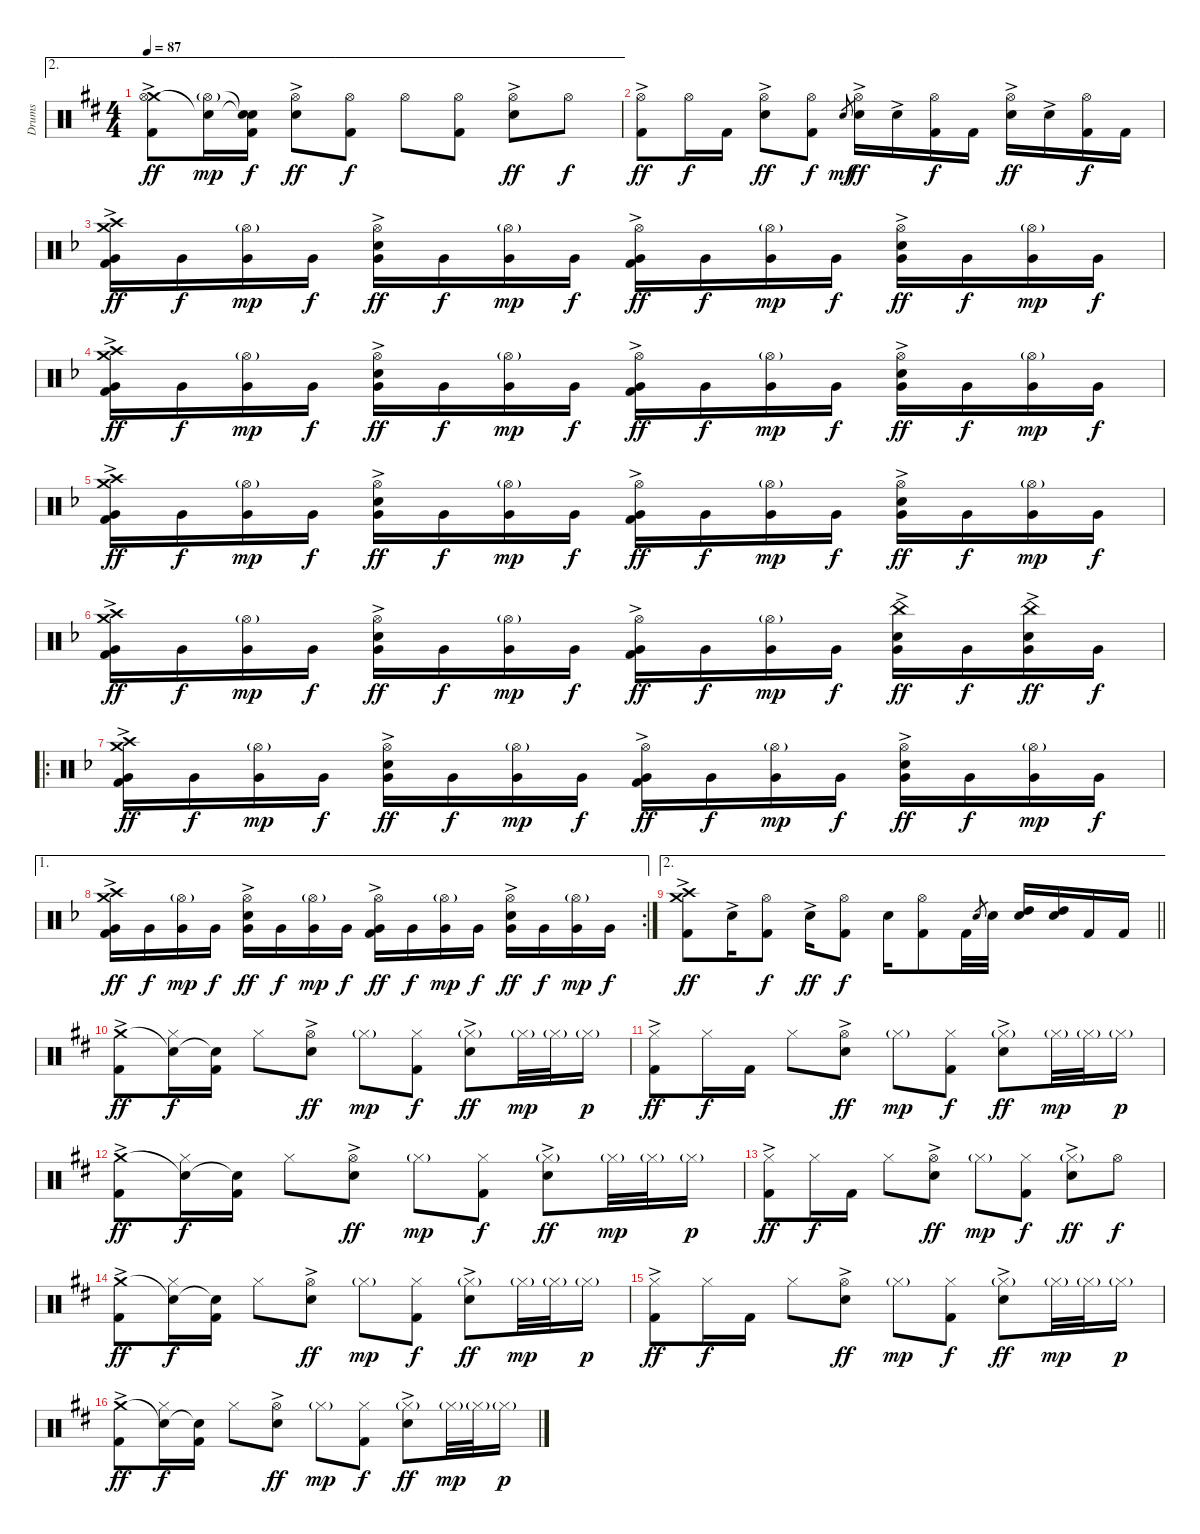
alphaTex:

\track ("Drums" "Drums") {instrument percussion}
\staff {score}
\articulation defaults
\ae 2
\ts (4 4)
\tempo 87
\clef neutral
\ks d
("Crash medium (hit)" "Hi-Hat (open)" "Kick (hit) 2"{ac}).8{dy ff} ("Snare (hit)"{t} "Hi-Hat (open)"{g}).16{dy mp} ("Snare (hit)"{t} "Snare (hit)"{t} "Kick (hit) 2").16{dy f} ("Hi-Hat (open)" "Electric Snare (hit)"{ac}).8{dy ff} ("Hi-Hat (open)" "Kick (hit) 2").8{dy f} "Hi-Hat (open)".8 ("Hi-Hat (open)" "Kick (hit) 2").8 ("Hi-Hat (open)" "Electric Snare (hit)"{ac}).8{dy ff} "Hi-Hat (open)".8{dy f} |
("Hi-Hat (open)" "Kick (hit) 2"{ac}).8{dy ff} "Hi-Hat (open)".16{dy f} "Kick (hit) 2".16 ("Hi-Hat (open)" "Electric Snare (hit)"{ac}).8{dy ff} ("Hi-Hat (open)" "Kick (hit) 2").8{dy f} "Electric Snare (hit)".8{gr dy mf} ("Hi-Hat (open)" "Electric Snare (hit)"{ac}).16{dy ff} "Electric Snare (hit)"{ac}.16 ("Hi-Hat (open)" "Kick (hit) 2").16{dy f} "Kick (hit) 2".16 ("Hi-Hat (open)" "Electric Snare (hit)"{ac}).16{dy ff} "Electric Snare (hit)"{ac}.16 ("Hi-Hat (open)" "Kick (hit) 2").16{dy f} "Kick (hit) 2".16 |
\ks f
("Crash high (hit)"{ac} "Crash medium (hit)" "Very Low Tom (hit)" "Kick (hit) 2"{ac}).16{dy ff} "Very Low Tom (hit)".16{dy f} ("Hi-Hat (open)"{g} "Very Low Tom (hit)").16{dy mp} "Very Low Tom (hit)".16{dy f} ("Hi-Hat (open)" "Very Low Tom (hit)" "Electric Snare (hit)"{ac}).16{dy ff} "Very Low Tom (hit)".16{dy f} ("Hi-Hat (open)"{g} "Very Low Tom (hit)").16{dy mp} "Very Low Tom (hit)".16{dy f} ("Hi-Hat (open)" "Very Low Tom (hit)" "Kick (hit) 2"{ac}).16{dy ff} "Very Low Tom (hit)".16{dy f} ("Hi-Hat (open)"{g} "Very Low Tom (hit)").16{dy mp} "Very Low Tom (hit)".16{dy f} ("Hi-Hat (open)" "Very Low Tom (hit)" "Electric Snare (hit)"{ac}).16{dy ff} "Very Low Tom (hit)".16{dy f} ("Hi-Hat (open)"{g} "Very Low Tom (hit)").16{dy mp} "Very Low Tom (hit)".16{dy f} |
("Crash high (hit)"{ac} "Crash medium (hit)" "Very Low Tom (hit)" "Kick (hit) 2"{ac}).16{dy ff} "Very Low Tom (hit)".16{dy f} ("Hi-Hat (open)"{g} "Very Low Tom (hit)").16{dy mp} "Very Low Tom (hit)".16{dy f} ("Hi-Hat (open)" "Very Low Tom (hit)" "Electric Snare (hit)"{ac}).16{dy ff} "Very Low Tom (hit)".16{dy f} ("Hi-Hat (open)"{g} "Very Low Tom (hit)").16{dy mp} "Very Low Tom (hit)".16{dy f} ("Hi-Hat (open)" "Very Low Tom (hit)" "Kick (hit) 2"{ac}).16{dy ff} "Very Low Tom (hit)".16{dy f} ("Hi-Hat (open)"{g} "Very Low Tom (hit)").16{dy mp} "Very Low Tom (hit)".16{dy f} ("Hi-Hat (open)" "Very Low Tom (hit)" "Electric Snare (hit)"{ac}).16{dy ff} "Very Low Tom (hit)".16{dy f} ("Hi-Hat (open)"{g} "Very Low Tom (hit)").16{dy mp} "Very Low Tom (hit)".16{dy f} |
("Crash high (hit)"{ac} "Crash medium (hit)" "Very Low Tom (hit)" "Kick (hit) 2"{ac}).16{dy ff} "Very Low Tom (hit)".16{dy f} ("Hi-Hat (open)"{g} "Very Low Tom (hit)").16{dy mp} "Very Low Tom (hit)".16{dy f} ("Hi-Hat (open)" "Very Low Tom (hit)" "Electric Snare (hit)"{ac}).16{dy ff} "Very Low Tom (hit)".16{dy f} ("Hi-Hat (open)"{g} "Very Low Tom (hit)").16{dy mp} "Very Low Tom (hit)".16{dy f} ("Hi-Hat (open)" "Very Low Tom (hit)" "Kick (hit) 2"{ac}).16{dy ff} "Very Low Tom (hit)".16{dy f} ("Hi-Hat (open)"{g} "Very Low Tom (hit)").16{dy mp} "Very Low Tom (hit)".16{dy f} ("Hi-Hat (open)" "Very Low Tom (hit)" "Electric Snare (hit)"{ac}).16{dy ff} "Very Low Tom (hit)".16{dy f} ("Hi-Hat (open)"{g} "Very Low Tom (hit)").16{dy mp} "Very Low Tom (hit)".16{dy f} |
("Crash high (hit)"{ac} "Crash medium (hit)" "Very Low Tom (hit)" "Kick (hit) 2"{ac}).16{dy ff} "Very Low Tom (hit)".16{dy f} ("Hi-Hat (open)"{g} "Very Low Tom (hit)").16{dy mp} "Very Low Tom (hit)".16{dy f} ("Hi-Hat (open)" "Very Low Tom (hit)" "Electric Snare (hit)"{ac}).16{dy ff} "Very Low Tom (hit)".16{dy f} ("Hi-Hat (open)"{g} "Very Low Tom (hit)").16{dy mp} "Very Low Tom (hit)".16{dy f} ("Hi-Hat (open)" "Very Low Tom (hit)" "Kick (hit) 2"{ac}).16{dy ff} "Very Low Tom (hit)".16{dy f} ("Hi-Hat (open)"{g} "Very Low Tom (hit)").16{dy mp} "Very Low Tom (hit)".16{dy f} ("China (hit)"{ac} "Very Low Tom (hit)" "Electric Snare (hit)"{ac}).16{dy ff} "Very Low Tom (hit)".16{dy f} ("China (hit)"{ac} "Very Low Tom (hit)" "Electric Snare (hit)").16{dy ff} "Very Low Tom (hit)".16{dy f} |
\ro
("Crash high (hit)"{ac} "Crash medium (hit)" "Very Low Tom (hit)" "Kick (hit) 2"{ac}).16{dy ff} "Very Low Tom (hit)".16{dy f} ("Hi-Hat (open)"{g} "Very Low Tom (hit)").16{dy mp} "Very Low Tom (hit)".16{dy f} ("Hi-Hat (open)" "Very Low Tom (hit)" "Electric Snare (hit)"{ac}).16{dy ff} "Very Low Tom (hit)".16{dy f} ("Hi-Hat (open)"{g} "Very Low Tom (hit)").16{dy mp} "Very Low Tom (hit)".16{dy f} ("Hi-Hat (open)" "Very Low Tom (hit)" "Kick (hit) 2"{ac}).16{dy ff} "Very Low Tom (hit)".16{dy f} ("Hi-Hat (open)"{g} "Very Low Tom (hit)").16{dy mp} "Very Low Tom (hit)".16{dy f} ("Hi-Hat (open)" "Very Low Tom (hit)" "Electric Snare (hit)"{ac}).16{dy ff} "Very Low Tom (hit)".16{dy f} ("Hi-Hat (open)"{g} "Very Low Tom (hit)").16{dy mp} "Very Low Tom (hit)".16{dy f} |
\ae 1
\rc 2
("Crash high (hit)"{ac} "Crash medium (hit)" "Very Low Tom (hit)" "Kick (hit) 2"{ac}).16{dy ff} "Very Low Tom (hit)".16{dy f} ("Hi-Hat (open)"{g} "Very Low Tom (hit)").16{dy mp} "Very Low Tom (hit)".16{dy f} ("Hi-Hat (open)" "Very Low Tom (hit)" "Electric Snare (hit)"{ac}).16{dy ff} "Very Low Tom (hit)".16{dy f} ("Hi-Hat (open)"{g} "Very Low Tom (hit)").16{dy mp} "Very Low Tom (hit)".16{dy f} ("Hi-Hat (open)" "Very Low Tom (hit)" "Kick (hit) 2"{ac}).16{dy ff} "Very Low Tom (hit)".16{dy f} ("Hi-Hat (open)"{g} "Very Low Tom (hit)").16{dy mp} "Very Low Tom (hit)".16{dy f} ("Hi-Hat (open)" "Very Low Tom (hit)" "Electric Snare (hit)"{ac}).16{dy ff} "Very Low Tom (hit)".16{dy f} ("Hi-Hat (open)"{g} "Very Low Tom (hit)").16{dy mp} "Very Low Tom (hit)".16{dy f} |
\ae 2
\barLineRight lightlight
("Crash high (hit)" "Crash medium (hit)" "Kick (hit) 2"{ac}).8{dy ff} "Electric Snare (hit)"{ac}.16 ("Hi-Hat (open)" "Kick (hit) 2").8{dy f} "Electric Snare (hit)"{ac}.16{dy ff} ("Hi-Hat (open)" "Kick (hit) 2").8{dy f} "Electric Snare (hit)".16 ("Hi-Hat (open)" "Kick (hit) 2").8 "Kick (hit) 2".32 "Electric Snare (hit)".8{gr} "Electric Snare (hit)".32 ("High Tom (hit)" "Electric Snare (hit)").16 ("High Tom (hit)" "Electric Snare (hit)").16 "Kick (hit) 2".16 "Kick (hit) 2".16 |
\ks d
("Crash medium (hit)" "Kick (hit) 2"{ac}).8{dy ff} ("Snare (hit)"{t} "Hi-Hat (closed)").16{dy f} ("Snare (hit)"{t} "Kick (hit) 2").16 "Hi-Hat (closed)".8 ("Hi-Hat (open)" "Electric Snare (hit)"{ac}).8{dy ff} "Hi-Hat (closed)"{g}.8{dy mp} ("Hi-Hat (closed)" "Kick (hit) 2").8{dy f} ("Hi-Hat (closed)"{g} "Electric Snare (hit)"{ac}).8{dy ff} "Hi-Hat (closed)"{g}.32{dy mp} "Hi-Hat (closed)"{g}.32 "Hi-Hat (closed)"{g}.16{dy p} |
("Hi-Hat (closed)" "Kick (hit) 2"{ac}).8{dy ff} "Hi-Hat (closed)".16{dy f} "Kick (hit) 2".16 "Hi-Hat (closed)".8 ("Hi-Hat (open)" "Electric Snare (hit)"{ac}).8{dy ff} "Hi-Hat (closed)"{g}.8{dy mp} ("Hi-Hat (closed)" "Kick (hit) 2").8{dy f} ("Hi-Hat (closed)"{g} "Electric Snare (hit)"{ac}).8{dy ff} "Hi-Hat (closed)"{g}.32{dy mp} "Hi-Hat (closed)"{g}.32 "Hi-Hat (closed)"{g}.16{dy p} |
("Crash medium (hit)" "Kick (hit) 2"{ac}).8{dy ff} ("Snare (hit)"{t} "Hi-Hat (closed)").16{dy f} ("Snare (hit)"{t} "Kick (hit) 2").16 "Hi-Hat (closed)".8 ("Hi-Hat (open)" "Electric Snare (hit)"{ac}).8{dy ff} "Hi-Hat (closed)"{g}.8{dy mp} ("Hi-Hat (closed)" "Kick (hit) 2").8{dy f} ("Hi-Hat (closed)"{g} "Electric Snare (hit)"{ac}).8{dy ff} "Hi-Hat (closed)"{g}.32{dy mp} "Hi-Hat (closed)"{g}.32 "Hi-Hat (closed)"{g}.16{dy p} |
("Hi-Hat (closed)" "Kick (hit) 2"{ac}).8{dy ff} "Hi-Hat (closed)".16{dy f} "Kick (hit) 2".16 "Hi-Hat (closed)".8 ("Hi-Hat (open)" "Electric Snare (hit)"{ac}).8{dy ff} "Hi-Hat (closed)"{g}.8{dy mp} ("Hi-Hat (closed)" "Kick (hit) 2").8{dy f} ("Hi-Hat (closed)"{g} "Electric Snare (hit)"{ac}).8{dy ff} "Hi-Hat (open)".8{dy f} |
("Crash medium (hit)" "Kick (hit) 2"{ac}).8{dy ff} ("Snare (hit)"{t} "Hi-Hat (closed)").16{dy f} ("Snare (hit)"{t} "Kick (hit) 2").16 "Hi-Hat (closed)".8 ("Hi-Hat (open)" "Electric Snare (hit)"{ac}).8{dy ff} "Hi-Hat (closed)"{g}.8{dy mp} ("Hi-Hat (closed)" "Kick (hit) 2").8{dy f} ("Hi-Hat (closed)"{g} "Electric Snare (hit)"{ac}).8{dy ff} "Hi-Hat (closed)"{g}.32{dy mp} "Hi-Hat (closed)"{g}.32 "Hi-Hat (closed)"{g}.16{dy p} |
("Hi-Hat (closed)" "Kick (hit) 2"{ac}).8{dy ff} "Hi-Hat (closed)".16{dy f} "Kick (hit) 2".16 "Hi-Hat (closed)".8 ("Hi-Hat (open)" "Electric Snare (hit)"{ac}).8{dy ff} "Hi-Hat (closed)"{g}.8{dy mp} ("Hi-Hat (closed)" "Kick (hit) 2").8{dy f} ("Hi-Hat (closed)"{g} "Electric Snare (hit)"{ac}).8{dy ff} "Hi-Hat (closed)"{g}.32{dy mp} "Hi-Hat (closed)"{g}.32 "Hi-Hat (closed)"{g}.16{dy p} |
("Crash medium (hit)" "Kick (hit) 2"{ac}).8{dy ff} ("Snare (hit)"{t} "Hi-Hat (closed)").16{dy f} ("Snare (hit)"{t} "Kick (hit) 2").16 "Hi-Hat (closed)".8 ("Hi-Hat (open)" "Electric Snare (hit)"{ac}).8{dy ff} "Hi-Hat (closed)"{g}.8{dy mp} ("Hi-Hat (closed)" "Kick (hit) 2").8{dy f} ("Hi-Hat (closed)"{g} "Electric Snare (hit)"{ac}).8{dy ff} "Hi-Hat (closed)"{g}.32{dy mp} "Hi-Hat (closed)"{g}.32 "Hi-Hat (closed)"{g}.16{dy p}
